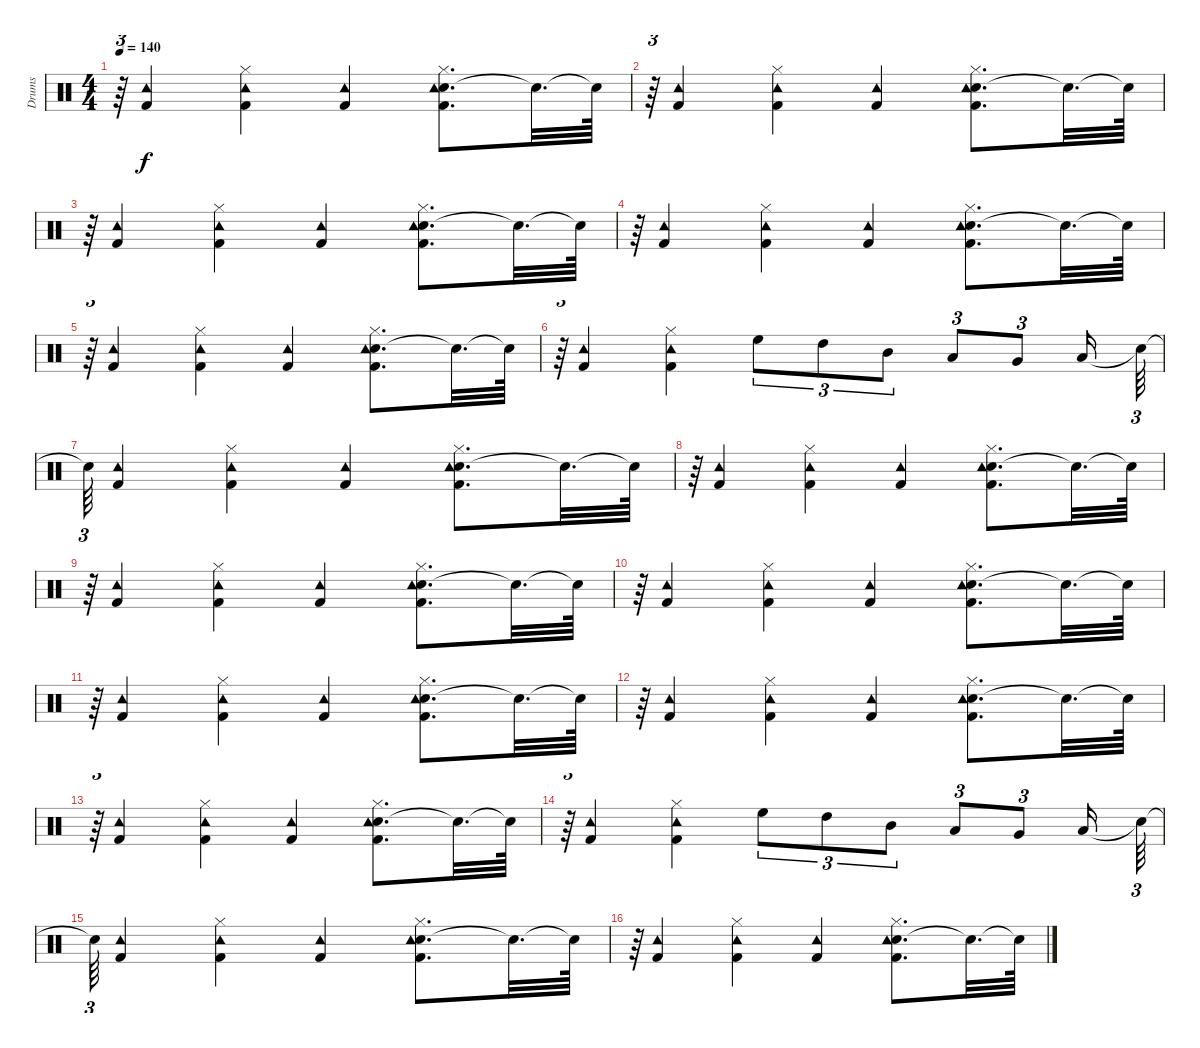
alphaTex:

\track ("Drums" "Drums") {instrument percussion}
\staff {score}
\articulation defaults
\ts (4 4)
\tempo 140
\clef neutral
\ks c
r.64{tu (3 2) dy f} ("Tambourine (hit)" "Kick (hit) 2").4 ("Hi-Hat (closed)" "Tambourine (hit)" "Kick (hit) 2").4 ("Tambourine (hit)" "Kick (hit) 2").4 ("Electric Snare (hit)" "Hi-Hat (closed)" "Tambourine (hit)" "Kick (hit) 2").8{d} "Snare (hit)"{t}.32{d} "Snare (hit)"{t}.64 |
r.64{tu (3 2)} ("Tambourine (hit)" "Kick (hit) 2").4 ("Hi-Hat (closed)" "Tambourine (hit)" "Kick (hit) 2").4 ("Tambourine (hit)" "Kick (hit) 2").4 ("Electric Snare (hit)" "Hi-Hat (closed)" "Tambourine (hit)" "Kick (hit) 2").8{d} "Snare (hit)"{t}.32{d} "Snare (hit)"{t}.64 |
r.64{tu (3 2)} ("Tambourine (hit)" "Kick (hit) 2").4 ("Hi-Hat (closed)" "Tambourine (hit)" "Kick (hit) 2").4 ("Tambourine (hit)" "Kick (hit) 2").4 ("Electric Snare (hit)" "Hi-Hat (closed)" "Tambourine (hit)" "Kick (hit) 2").8{d} "Snare (hit)"{t}.32{d} "Snare (hit)"{t}.64 |
r.64{tu (3 2)} ("Tambourine (hit)" "Kick (hit) 2").4 ("Hi-Hat (closed)" "Tambourine (hit)" "Kick (hit) 2").4 ("Tambourine (hit)" "Kick (hit) 2").4 ("Electric Snare (hit)" "Hi-Hat (closed)" "Tambourine (hit)" "Kick (hit) 2").8{d} "Snare (hit)"{t}.32{d} "Snare (hit)"{t}.64 |
r.64{tu (3 2)} ("Tambourine (hit)" "Kick (hit) 2").4 ("Hi-Hat (closed)" "Tambourine (hit)" "Kick (hit) 2").4 ("Tambourine (hit)" "Kick (hit) 2").4 ("Electric Snare (hit)" "Hi-Hat (closed)" "Tambourine (hit)" "Kick (hit) 2").8{d} "Snare (hit)"{t}.32{d} "Snare (hit)"{t}.64 |
r.64{tu (3 2)} ("Tambourine (hit)" "Kick (hit) 2").4 ("Hi-Hat (closed)" "Tambourine (hit)" "Kick (hit) 2").4 "High Floor Tom (hit)".8{tu (3 2)} "High Tom (hit)".8{tu (3 2)} "Mid Tom (hit)".8{tu (3 2)} "Low Tom (hit)".8{tu (3 2)} "Very Low Tom (hit)".8{tu (3 2)} "Low Floor Tom (hit)".16 "Snare (hit)"{t}.64{tu (3 2)} |
"Snare (hit)"{t}.64{tu (3 2)} ("Tambourine (hit)" "Kick (hit) 2").4 ("Hi-Hat (closed)" "Tambourine (hit)" "Kick (hit) 2").4 ("Tambourine (hit)" "Kick (hit) 2").4 ("Electric Snare (hit)" "Hi-Hat (closed)" "Tambourine (hit)" "Kick (hit) 2").8{d} "Snare (hit)"{t}.32{d} "Snare (hit)"{t}.64 |
r.64{tu (3 2)} ("Tambourine (hit)" "Kick (hit) 2").4 ("Hi-Hat (closed)" "Tambourine (hit)" "Kick (hit) 2").4 ("Tambourine (hit)" "Kick (hit) 2").4 ("Electric Snare (hit)" "Hi-Hat (closed)" "Tambourine (hit)" "Kick (hit) 2").8{d} "Snare (hit)"{t}.32{d} "Snare (hit)"{t}.64 |
r.64{tu (3 2)} ("Tambourine (hit)" "Kick (hit) 2").4 ("Hi-Hat (closed)" "Tambourine (hit)" "Kick (hit) 2").4 ("Tambourine (hit)" "Kick (hit) 2").4 ("Electric Snare (hit)" "Hi-Hat (closed)" "Tambourine (hit)" "Kick (hit) 2").8{d} "Snare (hit)"{t}.32{d} "Snare (hit)"{t}.64 |
r.64{tu (3 2)} ("Tambourine (hit)" "Kick (hit) 2").4 ("Hi-Hat (closed)" "Tambourine (hit)" "Kick (hit) 2").4 ("Tambourine (hit)" "Kick (hit) 2").4 ("Electric Snare (hit)" "Hi-Hat (closed)" "Tambourine (hit)" "Kick (hit) 2").8{d} "Snare (hit)"{t}.32{d} "Snare (hit)"{t}.64 |
r.64{tu (3 2)} ("Tambourine (hit)" "Kick (hit) 2").4 ("Hi-Hat (closed)" "Tambourine (hit)" "Kick (hit) 2").4 ("Tambourine (hit)" "Kick (hit) 2").4 ("Electric Snare (hit)" "Hi-Hat (closed)" "Tambourine (hit)" "Kick (hit) 2").8{d} "Snare (hit)"{t}.32{d} "Snare (hit)"{t}.64 |
r.64{tu (3 2)} ("Tambourine (hit)" "Kick (hit) 2").4 ("Hi-Hat (closed)" "Tambourine (hit)" "Kick (hit) 2").4 ("Tambourine (hit)" "Kick (hit) 2").4 ("Electric Snare (hit)" "Hi-Hat (closed)" "Tambourine (hit)" "Kick (hit) 2").8{d} "Snare (hit)"{t}.32{d} "Snare (hit)"{t}.64 |
r.64{tu (3 2)} ("Tambourine (hit)" "Kick (hit) 2").4 ("Hi-Hat (closed)" "Tambourine (hit)" "Kick (hit) 2").4 ("Tambourine (hit)" "Kick (hit) 2").4 ("Electric Snare (hit)" "Hi-Hat (closed)" "Tambourine (hit)" "Kick (hit) 2").8{d} "Snare (hit)"{t}.32{d} "Snare (hit)"{t}.64 |
r.64{tu (3 2)} ("Tambourine (hit)" "Kick (hit) 2").4 ("Hi-Hat (closed)" "Tambourine (hit)" "Kick (hit) 2").4 "High Floor Tom (hit)".8{tu (3 2)} "High Tom (hit)".8{tu (3 2)} "Mid Tom (hit)".8{tu (3 2)} "Low Tom (hit)".8{tu (3 2)} "Very Low Tom (hit)".8{tu (3 2)} "Low Floor Tom (hit)".16 "Snare (hit)"{t}.64{tu (3 2)} |
"Snare (hit)"{t}.64{tu (3 2)} ("Tambourine (hit)" "Kick (hit) 2").4 ("Hi-Hat (closed)" "Tambourine (hit)" "Kick (hit) 2").4 ("Tambourine (hit)" "Kick (hit) 2").4 ("Electric Snare (hit)" "Hi-Hat (closed)" "Tambourine (hit)" "Kick (hit) 2").8{d} "Snare (hit)"{t}.32{d} "Snare (hit)"{t}.64 |
r.64{tu (3 2)} ("Tambourine (hit)" "Kick (hit) 2").4 ("Hi-Hat (closed)" "Tambourine (hit)" "Kick (hit) 2").4 ("Tambourine (hit)" "Kick (hit) 2").4 ("Electric Snare (hit)" "Hi-Hat (closed)" "Tambourine (hit)" "Kick (hit) 2").8{d} "Snare (hit)"{t}.32{d} "Snare (hit)"{t}.64
